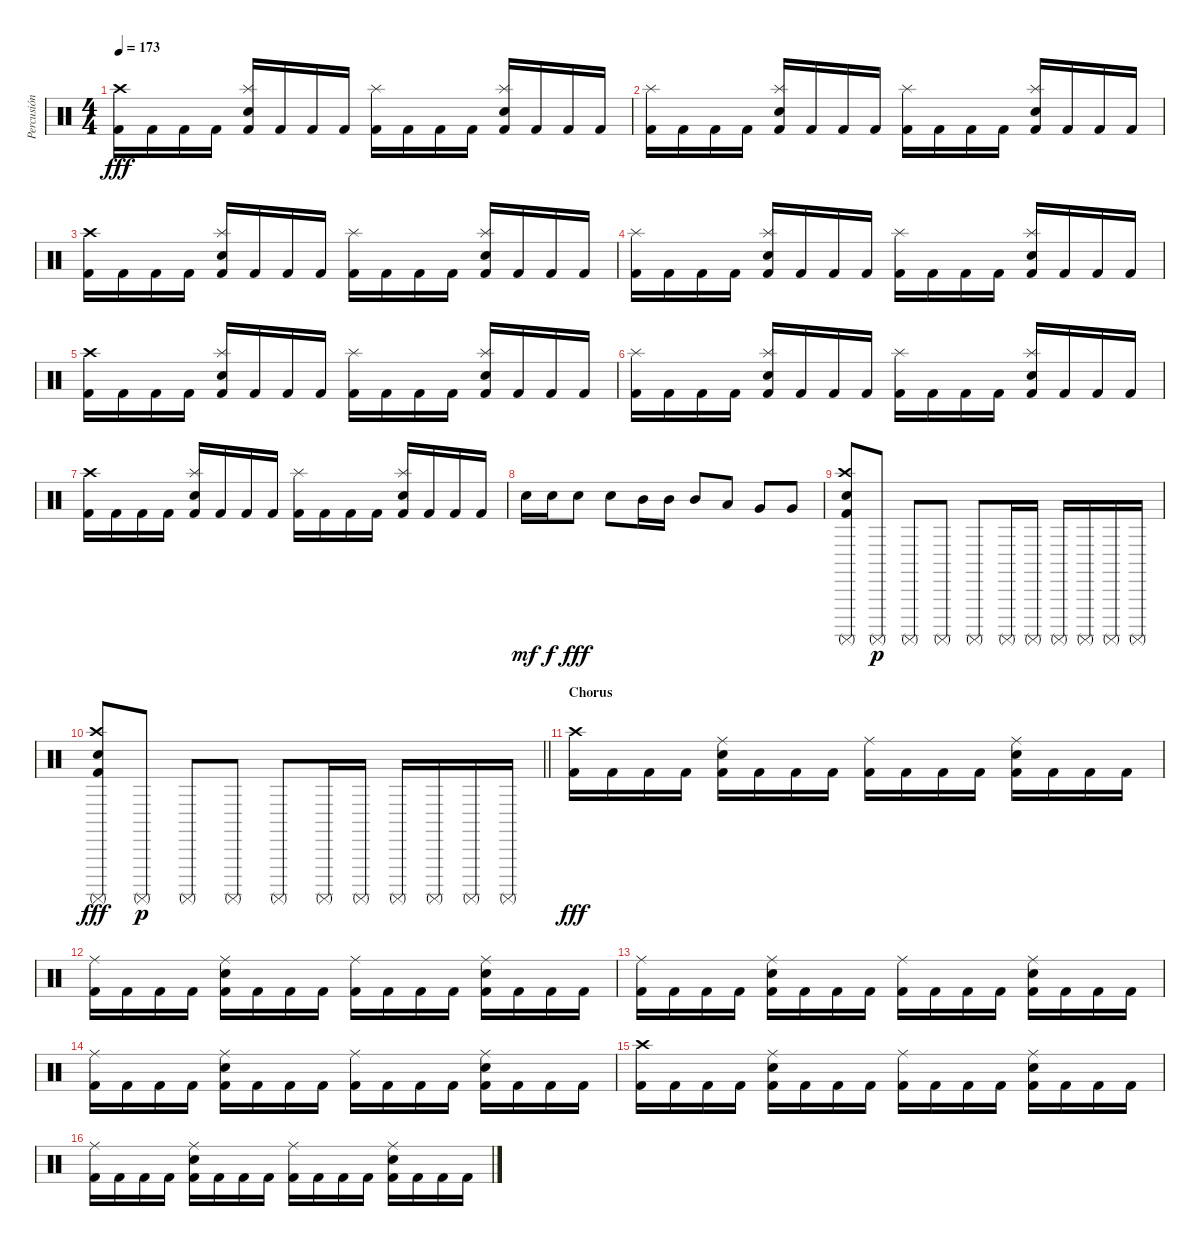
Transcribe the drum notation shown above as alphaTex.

\track ("Percusión" "Percusión") {instrument percussion}
\staff {score}
\articulation defaults
\ts (4 4)
\tempo 173
\clef neutral
\ks c
("Crash high (hit)" "Kick (hit) 2").16{dy fff} "Kick (hit) 2".16 "Kick (hit) 2".16 "Kick (hit) 2".16 ("Splash (hit)" "Electric Snare (hit)" "Kick (hit) 2").16 "Kick (hit) 2".16 "Kick (hit) 2".16 "Kick (hit) 2".16 ("Splash (hit)" "Kick (hit) 2").16 "Kick (hit) 2".16 "Kick (hit) 2".16 "Kick (hit) 2".16 ("Splash (hit)" "Electric Snare (hit)" "Kick (hit) 2").16 "Kick (hit) 2".16 "Kick (hit) 2".16 "Kick (hit) 2".16 |
("Splash (hit)" "Kick (hit) 2").16 "Kick (hit) 2".16 "Kick (hit) 2".16 "Kick (hit) 2".16 ("Splash (hit)" "Electric Snare (hit)" "Kick (hit) 2").16 "Kick (hit) 2".16 "Kick (hit) 2".16 "Kick (hit) 2".16 ("Splash (hit)" "Kick (hit) 2").16 "Kick (hit) 2".16 "Kick (hit) 2".16 "Kick (hit) 2".16 ("Splash (hit)" "Electric Snare (hit)" "Kick (hit) 2").16 "Kick (hit) 2".16 "Kick (hit) 2".16 "Kick (hit) 2".16 |
("Crash high (hit)" "Kick (hit) 2").16 "Kick (hit) 2".16 "Kick (hit) 2".16 "Kick (hit) 2".16 ("Splash (hit)" "Electric Snare (hit)" "Kick (hit) 2").16 "Kick (hit) 2".16 "Kick (hit) 2".16 "Kick (hit) 2".16 ("Splash (hit)" "Kick (hit) 2").16 "Kick (hit) 2".16 "Kick (hit) 2".16 "Kick (hit) 2".16 ("Splash (hit)" "Electric Snare (hit)" "Kick (hit) 2").16 "Kick (hit) 2".16 "Kick (hit) 2".16 "Kick (hit) 2".16 |
("Splash (hit)" "Kick (hit) 2").16 "Kick (hit) 2".16 "Kick (hit) 2".16 "Kick (hit) 2".16 ("Splash (hit)" "Electric Snare (hit)" "Kick (hit) 2").16 "Kick (hit) 2".16 "Kick (hit) 2".16 "Kick (hit) 2".16 ("Splash (hit)" "Kick (hit) 2").16 "Kick (hit) 2".16 "Kick (hit) 2".16 "Kick (hit) 2".16 ("Splash (hit)" "Electric Snare (hit)" "Kick (hit) 2").16 "Kick (hit) 2".16 "Kick (hit) 2".16 "Kick (hit) 2".16 |
("Crash high (hit)" "Kick (hit) 2").16 "Kick (hit) 2".16 "Kick (hit) 2".16 "Kick (hit) 2".16 ("Splash (hit)" "Electric Snare (hit)" "Kick (hit) 2").16 "Kick (hit) 2".16 "Kick (hit) 2".16 "Kick (hit) 2".16 ("Splash (hit)" "Kick (hit) 2").16 "Kick (hit) 2".16 "Kick (hit) 2".16 "Kick (hit) 2".16 ("Splash (hit)" "Electric Snare (hit)" "Kick (hit) 2").16 "Kick (hit) 2".16 "Kick (hit) 2".16 "Kick (hit) 2".16 |
("Splash (hit)" "Kick (hit) 2").16 "Kick (hit) 2".16 "Kick (hit) 2".16 "Kick (hit) 2".16 ("Splash (hit)" "Electric Snare (hit)" "Kick (hit) 2").16 "Kick (hit) 2".16 "Kick (hit) 2".16 "Kick (hit) 2".16 ("Splash (hit)" "Kick (hit) 2").16 "Kick (hit) 2".16 "Kick (hit) 2".16 "Kick (hit) 2".16 ("Splash (hit)" "Electric Snare (hit)" "Kick (hit) 2").16 "Kick (hit) 2".16 "Kick (hit) 2".16 "Kick (hit) 2".16 |
("Crash high (hit)" "Kick (hit) 2").16 "Kick (hit) 2".16 "Kick (hit) 2".16 "Kick (hit) 2".16 ("Splash (hit)" "Electric Snare (hit)" "Kick (hit) 2").16 "Kick (hit) 2".16 "Kick (hit) 2".16 "Kick (hit) 2".16 ("Splash (hit)" "Kick (hit) 2").16 "Kick (hit) 2".16 "Kick (hit) 2".16 "Kick (hit) 2".16 ("Splash (hit)" "Electric Snare (hit)" "Kick (hit) 2").16 "Kick (hit) 2".16 "Kick (hit) 2".16 "Kick (hit) 2".16 |
"Electric Snare (hit)".16{dy mf} "Electric Snare (hit)".16{dy f} "Electric Snare (hit)".8{dy fff} "Electric Snare (hit)".8 "Mid Tom (hit)".16 "Mid Tom (hit)".16 "Mid Tom (hit)".8 "Low Tom (hit)".8 "Very Low Tom (hit)".8 "Very Low Tom (hit)".8 |
("Crash high (hit)" "Surdo (mute)" "Snare (hit) 2" "Kick (hit) 2").8 "Surdo (mute)".8{dy p} "Surdo (mute)".8 "Surdo (mute)".8 "Surdo (mute)".8 "Surdo (mute)".16 "Surdo (mute)".16 "Surdo (mute)".16 "Surdo (mute)".16 "Surdo (mute)".16 "Surdo (mute)".16 |
\barLineRight lightlight
("Crash high (hit)" "Surdo (mute)" "Snare (hit) 2" "Kick (hit) 2").8{dy fff} "Surdo (mute)".8{dy p} "Surdo (mute)".8 "Surdo (mute)".8 "Surdo (mute)".8 "Surdo (mute)".16 "Surdo (mute)".16 "Surdo (mute)".16 "Surdo (mute)".16 "Surdo (mute)".16 "Surdo (mute)".16 |
\section ("" "Chorus")
("Crash high (hit)" "Kick (hit) 2").16{dy fff} "Kick (hit) 2".16 "Kick (hit) 2".16 "Kick (hit) 2".16 ("Ride (middle)" "Electric Snare (hit)" "Kick (hit) 2").16 "Kick (hit) 2".16 "Kick (hit) 2".16 "Kick (hit) 2".16 ("Ride (middle)" "Kick (hit) 2").16 "Kick (hit) 2".16 "Kick (hit) 2".16 "Kick (hit) 2".16 ("Ride (middle)" "Electric Snare (hit)" "Kick (hit) 2").16 "Kick (hit) 2".16 "Kick (hit) 2".16 "Kick (hit) 2".16 |
("Ride (middle)" "Kick (hit) 2").16 "Kick (hit) 2".16 "Kick (hit) 2".16 "Kick (hit) 2".16 ("Ride (middle)" "Electric Snare (hit)" "Kick (hit) 2").16 "Kick (hit) 2".16 "Kick (hit) 2".16 "Kick (hit) 2".16 ("Ride (middle)" "Kick (hit) 2").16 "Kick (hit) 2".16 "Kick (hit) 2".16 "Kick (hit) 2".16 ("Ride (middle)" "Electric Snare (hit)" "Kick (hit) 2").16 "Kick (hit) 2".16 "Kick (hit) 2".16 "Kick (hit) 2".16 |
("Ride (middle)" "Kick (hit) 2").16 "Kick (hit) 2".16 "Kick (hit) 2".16 "Kick (hit) 2".16 ("Ride (middle)" "Electric Snare (hit)" "Kick (hit) 2").16 "Kick (hit) 2".16 "Kick (hit) 2".16 "Kick (hit) 2".16 ("Ride (middle)" "Kick (hit) 2").16 "Kick (hit) 2".16 "Kick (hit) 2".16 "Kick (hit) 2".16 ("Ride (middle)" "Electric Snare (hit)" "Kick (hit) 2").16 "Kick (hit) 2".16 "Kick (hit) 2".16 "Kick (hit) 2".16 |
("Ride (middle)" "Kick (hit) 2").16 "Kick (hit) 2".16 "Kick (hit) 2".16 "Kick (hit) 2".16 ("Ride (middle)" "Electric Snare (hit)" "Kick (hit) 2").16 "Kick (hit) 2".16 "Kick (hit) 2".16 "Kick (hit) 2".16 ("Ride (middle)" "Kick (hit) 2").16 "Kick (hit) 2".16 "Kick (hit) 2".16 "Kick (hit) 2".16 ("Ride (middle)" "Electric Snare (hit)" "Kick (hit) 2").16 "Kick (hit) 2".16 "Kick (hit) 2".16 "Kick (hit) 2".16 |
("Crash high (hit)" "Kick (hit) 2").16 "Kick (hit) 2".16 "Kick (hit) 2".16 "Kick (hit) 2".16 ("Ride (middle)" "Electric Snare (hit)" "Kick (hit) 2").16 "Kick (hit) 2".16 "Kick (hit) 2".16 "Kick (hit) 2".16 ("Ride (middle)" "Kick (hit) 2").16 "Kick (hit) 2".16 "Kick (hit) 2".16 "Kick (hit) 2".16 ("Ride (middle)" "Electric Snare (hit)" "Kick (hit) 2").16 "Kick (hit) 2".16 "Kick (hit) 2".16 "Kick (hit) 2".16 |
("Ride (middle)" "Kick (hit) 2").16 "Kick (hit) 2".16 "Kick (hit) 2".16 "Kick (hit) 2".16 ("Ride (middle)" "Electric Snare (hit)" "Kick (hit) 2").16 "Kick (hit) 2".16 "Kick (hit) 2".16 "Kick (hit) 2".16 ("Ride (middle)" "Kick (hit) 2").16 "Kick (hit) 2".16 "Kick (hit) 2".16 "Kick (hit) 2".16 ("Ride (middle)" "Electric Snare (hit)" "Kick (hit) 2").16 "Kick (hit) 2".16 "Kick (hit) 2".16 "Kick (hit) 2".16
